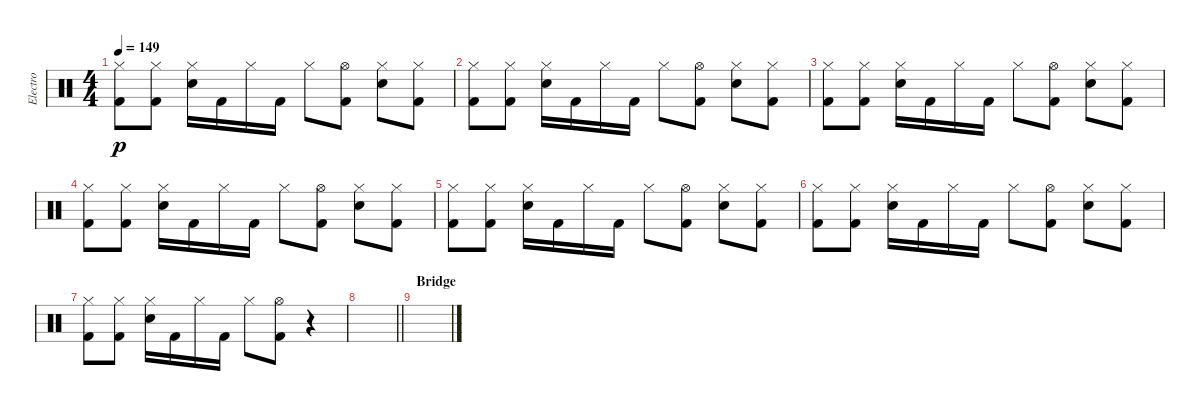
\track ("Electro" "Electro") {instrument percussion}
\staff {score}
\articulation defaults
\ts (4 4)
\tempo 149
\clef neutral
\ks c
("Hi-Hat (closed)" "Kick (hit) 2").8{dy p} ("Hi-Hat (closed)" "Kick (hit) 2").8 ("Hi-Hat (closed)" "Electric Snare (hit)").16 "Kick (hit) 2".16 "Hi-Hat (closed)".16 "Kick (hit) 2".16 "Hi-Hat (closed)".8 ("Hi-Hat (open)" "Kick (hit) 2").8 ("Hi-Hat (closed)" "Electric Snare (hit)").8 ("Hi-Hat (closed)" "Kick (hit) 2").8 |
("Hi-Hat (closed)" "Kick (hit) 2").8 ("Hi-Hat (closed)" "Kick (hit) 2").8 ("Hi-Hat (closed)" "Electric Snare (hit)").16 "Kick (hit) 2".16 "Hi-Hat (closed)".16 "Kick (hit) 2".16 "Hi-Hat (closed)".8 ("Hi-Hat (open)" "Kick (hit) 2").8 ("Hi-Hat (closed)" "Electric Snare (hit)").8 ("Hi-Hat (closed)" "Kick (hit) 2").8 |
("Hi-Hat (closed)" "Kick (hit) 2").8 ("Hi-Hat (closed)" "Kick (hit) 2").8 ("Hi-Hat (closed)" "Electric Snare (hit)").16 "Kick (hit) 2".16 "Hi-Hat (closed)".16 "Kick (hit) 2".16 "Hi-Hat (closed)".8 ("Hi-Hat (open)" "Kick (hit) 2").8 ("Hi-Hat (closed)" "Electric Snare (hit)").8 ("Hi-Hat (closed)" "Kick (hit) 2").8 |
("Hi-Hat (closed)" "Kick (hit) 2").8 ("Hi-Hat (closed)" "Kick (hit) 2").8 ("Hi-Hat (closed)" "Electric Snare (hit)").16 "Kick (hit) 2".16 "Hi-Hat (closed)".16 "Kick (hit) 2".16 "Hi-Hat (closed)".8 ("Hi-Hat (open)" "Kick (hit) 2").8 ("Hi-Hat (closed)" "Electric Snare (hit)").8 ("Hi-Hat (closed)" "Kick (hit) 2").8 |
("Hi-Hat (closed)" "Kick (hit) 2").8 ("Hi-Hat (closed)" "Kick (hit) 2").8 ("Hi-Hat (closed)" "Electric Snare (hit)").16 "Kick (hit) 2".16 "Hi-Hat (closed)".16 "Kick (hit) 2".16 "Hi-Hat (closed)".8 ("Hi-Hat (open)" "Kick (hit) 2").8 ("Hi-Hat (closed)" "Electric Snare (hit)").8 ("Hi-Hat (closed)" "Kick (hit) 2").8 |
("Hi-Hat (closed)" "Kick (hit) 2").8 ("Hi-Hat (closed)" "Kick (hit) 2").8 ("Hi-Hat (closed)" "Electric Snare (hit)").16 "Kick (hit) 2".16 "Hi-Hat (closed)".16 "Kick (hit) 2".16 "Hi-Hat (closed)".8 ("Hi-Hat (open)" "Kick (hit) 2").8 ("Hi-Hat (closed)" "Electric Snare (hit)").8 ("Hi-Hat (closed)" "Kick (hit) 2").8 |
("Hi-Hat (closed)" "Kick (hit) 2").8 ("Hi-Hat (closed)" "Kick (hit) 2").8 ("Hi-Hat (closed)" "Electric Snare (hit)").16 "Kick (hit) 2".16 "Hi-Hat (closed)".16 "Kick (hit) 2".16 "Hi-Hat (closed)".8 ("Hi-Hat (open)" "Kick (hit) 2").8 r.4 |
\barLineRight lightlight
|
\section ("" "Bridge")
